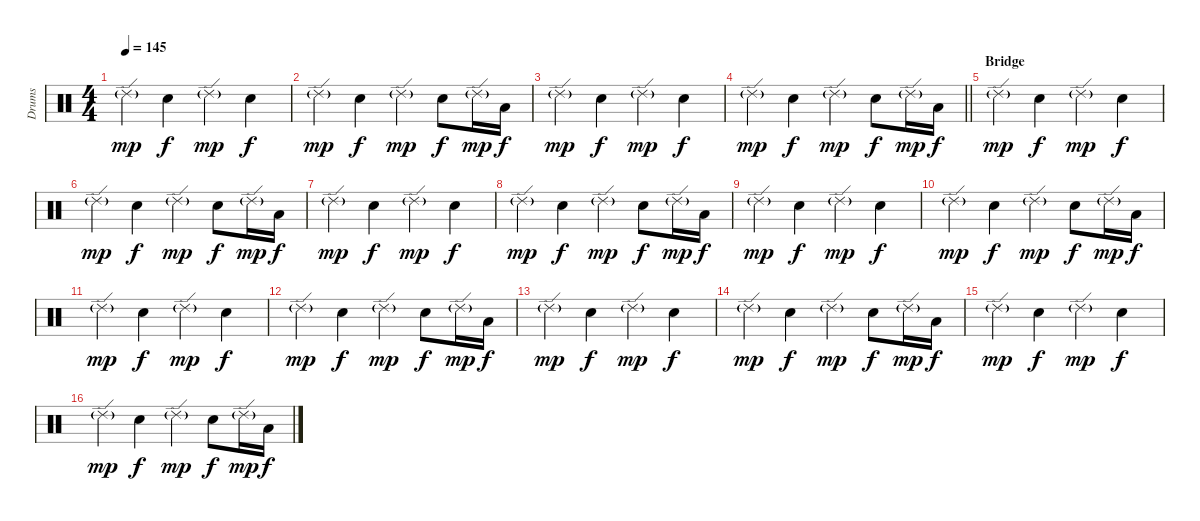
\track ("Drums" "Drums") {instrument percussion}
\staff {score}
\articulation defaults
\ts (4 4)
\tempo 145
\clef neutral
\ks c "Ride (edge) 2"{g}.4{dy mp} "Electric Snare (hit)".4{dy f} "Ride (edge) 2"{g}.4{dy mp} "Electric Snare (hit)".4{dy f}
|
"Ride (edge) 2"{g}.4{dy mp} "Electric Snare (hit)".4{dy f} "Ride (edge) 2"{g}.4{dy mp} "Electric Snare (hit)".8{dy f} "Ride (edge) 2"{g}.16{dy mp} "Low Tom (hit)".16{dy f} |
"Ride (edge) 2"{g}.4{dy mp} "Electric Snare (hit)".4{dy f} "Ride (edge) 2"{g}.4{dy mp} "Electric Snare (hit)".4{dy f} |
\barLineRight lightlight "Ride (edge) 2"{g}.4{dy mp} "Electric Snare (hit)".4{dy f} "Ride (edge) 2"{g}.4{dy mp} "Electric Snare (hit)".8{dy f} "Ride (edge) 2"{g}.16{dy mp} "Low Tom (hit)".16{dy f}
|
\section ("" "Bridge")
"Ride (edge) 2"{g}.4{dy mp} "Electric Snare (hit)".4{dy f} "Ride (edge) 2"{g}.4{dy mp} "Electric Snare (hit)".4{dy f} |
"Ride (edge) 2"{g}.4{dy mp} "Electric Snare (hit)".4{dy f} "Ride (edge) 2"{g}.4{dy mp} "Electric Snare (hit)".8{dy f} "Ride (edge) 2"{g}.16{dy mp} "Low Tom (hit)".16{dy f} |
"Ride (edge) 2"{g}.4{dy mp} "Electric Snare (hit)".4{dy f} "Ride (edge) 2"{g}.4{dy mp} "Electric Snare (hit)".4{dy f} |
"Ride (edge) 2"{g}.4{dy mp} "Electric Snare (hit)".4{dy f} "Ride (edge) 2"{g}.4{dy mp} "Electric Snare (hit)".8{dy f} "Ride (edge) 2"{g}.16{dy mp} "Low Tom (hit)".16{dy f} |
"Ride (edge) 2"{g}.4{dy mp} "Electric Snare (hit)".4{dy f} "Ride (edge) 2"{g}.4{dy mp} "Electric Snare (hit)".4{dy f} |
"Ride (edge) 2"{g}.4{dy mp} "Electric Snare (hit)".4{dy f} "Ride (edge) 2"{g}.4{dy mp} "Electric Snare (hit)".8{dy f} "Ride (edge) 2"{g}.16{dy mp} "Low Tom (hit)".16{dy f} |
"Ride (edge) 2"{g}.4{dy mp} "Electric Snare (hit)".4{dy f} "Ride (edge) 2"{g}.4{dy mp} "Electric Snare (hit)".4{dy f} |
"Ride (edge) 2"{g}.4{dy mp} "Electric Snare (hit)".4{dy f} "Ride (edge) 2"{g}.4{dy mp} "Electric Snare (hit)".8{dy f} "Ride (edge) 2"{g}.16{dy mp} "Low Tom (hit)".16{dy f} |
"Ride (edge) 2"{g}.4{dy mp} "Electric Snare (hit)".4{dy f} "Ride (edge) 2"{g}.4{dy mp} "Electric Snare (hit)".4{dy f} |
"Ride (edge) 2"{g}.4{dy mp} "Electric Snare (hit)".4{dy f} "Ride (edge) 2"{g}.4{dy mp} "Electric Snare (hit)".8{dy f} "Ride (edge) 2"{g}.16{dy mp} "Low Tom (hit)".16{dy f} |
"Ride (edge) 2"{g}.4{dy mp} "Electric Snare (hit)".4{dy f} "Ride (edge) 2"{g}.4{dy mp} "Electric Snare (hit)".4{dy f} |
"Ride (edge) 2"{g}.4{dy mp} "Electric Snare (hit)".4{dy f} "Ride (edge) 2"{g}.4{dy mp} "Electric Snare (hit)".8{dy f} "Ride (edge) 2"{g}.16{dy mp} "Low Tom (hit)".16{dy f}
